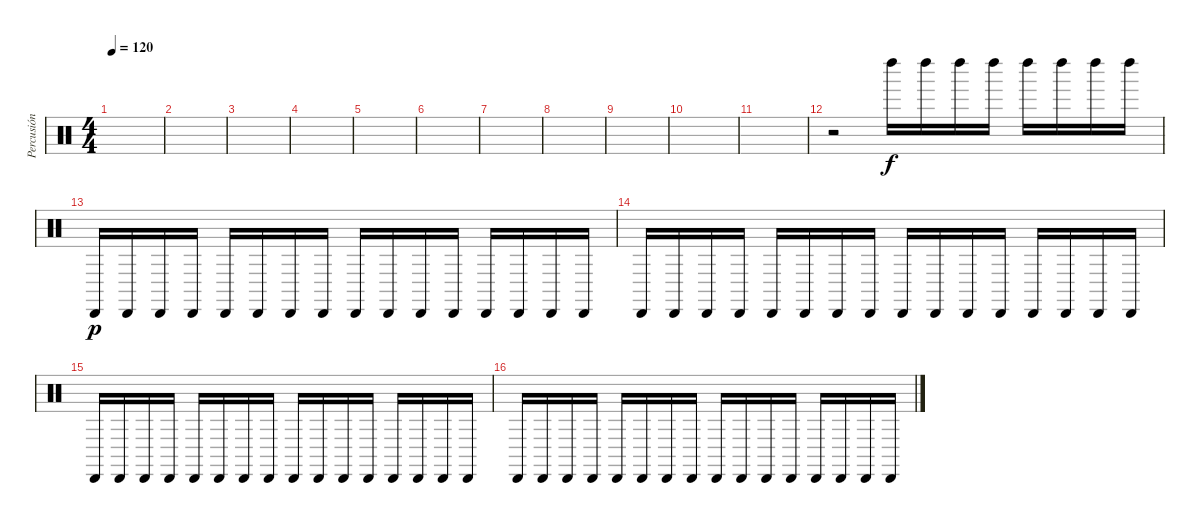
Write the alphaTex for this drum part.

\track ("Percusión" "Percusión") {instrument percussion}
\staff {score}
\articulation defaults
\ts (4 4)
\tempo 120
\clef neutral
\ks c
|
|
|
|
|
|
|
|
|
|
|
r.2 "Left Maraca (hit)".16 "Left Maraca (hit)".16 "Left Maraca (hit)".16 "Left Maraca (hit)".16 "Left Maraca (hit)".16 "Left Maraca (hit)".16 "Left Maraca (hit)".16 "Left Maraca (hit)".16 |
"Cabasa (hit)".16{dy p} "Cabasa (hit)".16 "Cabasa (hit)".16 "Cabasa (hit)".16 "Cabasa (hit)".16 "Cabasa (hit)".16 "Cabasa (hit)".16 "Cabasa (hit)".16 "Cabasa (hit)".16 "Cabasa (hit)".16 "Cabasa (hit)".16 "Cabasa (hit)".16 "Cabasa (hit)".16 "Cabasa (hit)".16 "Cabasa (hit)".16 "Cabasa (hit)".16 |
"Cabasa (hit)".16 "Cabasa (hit)".16 "Cabasa (hit)".16 "Cabasa (hit)".16 "Cabasa (hit)".16 "Cabasa (hit)".16 "Cabasa (hit)".16 "Cabasa (hit)".16 "Cabasa (hit)".16 "Cabasa (hit)".16 "Cabasa (hit)".16 "Cabasa (hit)".16 "Cabasa (hit)".16 "Cabasa (hit)".16 "Cabasa (hit)".16 "Cabasa (hit)".16 |
"Cabasa (hit)".16 "Cabasa (hit)".16 "Cabasa (hit)".16 "Cabasa (hit)".16 "Cabasa (hit)".16 "Cabasa (hit)".16 "Cabasa (hit)".16 "Cabasa (hit)".16 "Cabasa (hit)".16 "Cabasa (hit)".16 "Cabasa (hit)".16 "Cabasa (hit)".16 "Cabasa (hit)".16 "Cabasa (hit)".16 "Cabasa (hit)".16 "Cabasa (hit)".16 |
"Cabasa (hit)".16 "Cabasa (hit)".16 "Cabasa (hit)".16 "Cabasa (hit)".16 "Cabasa (hit)".16 "Cabasa (hit)".16 "Cabasa (hit)".16 "Cabasa (hit)".16 "Cabasa (hit)".16 "Cabasa (hit)".16 "Cabasa (hit)".16 "Cabasa (hit)".16 "Cabasa (hit)".16 "Cabasa (hit)".16 "Cabasa (hit)".16 "Cabasa (hit)".16
